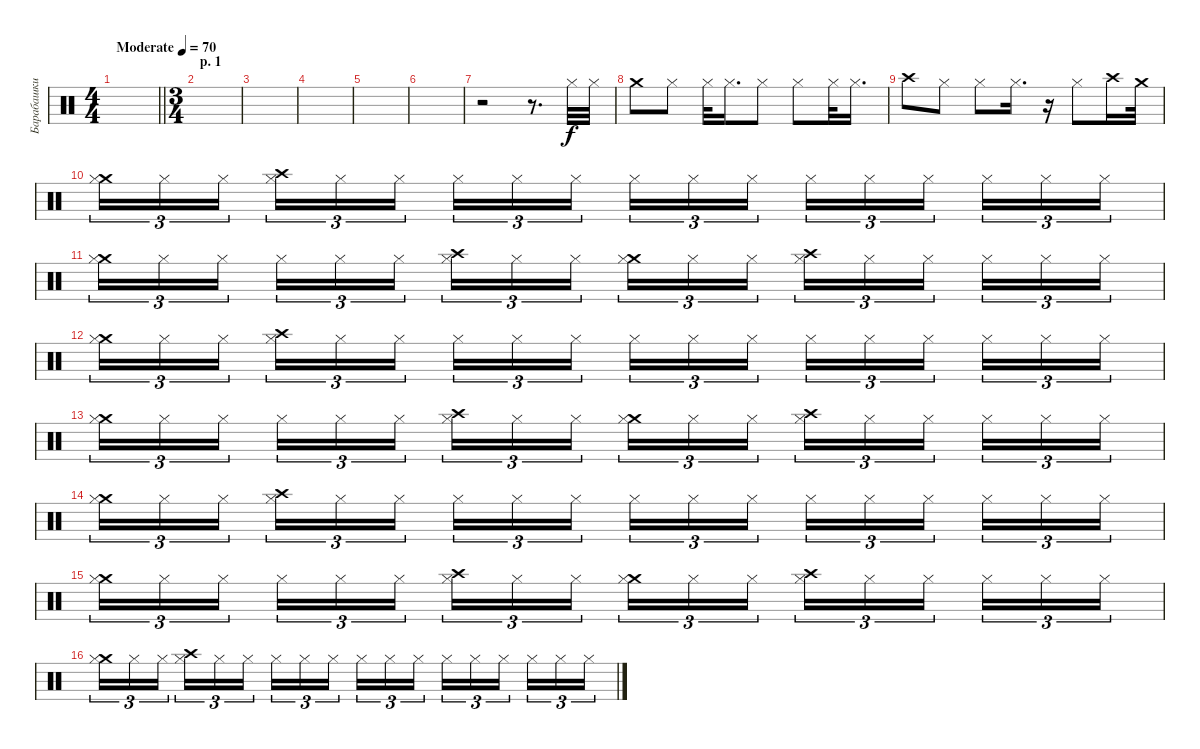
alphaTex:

\track ("Барабашки High" "Барабашки ") {instrument percussion}
\staff {score}
\articulation defaults
\ts (4 4)
\tempo (70 "Moderate")
\clef neutral
\barLineRight lightlight
\ks c
|
\ts (3 4)
\section ("" "p. 1")
|
|
|
|
|
r.2 r.8{d} "Hi-Hat (closed)".32 "Hi-Hat (closed)".32 |
"Crash medium (hit)".8 "Hi-Hat (closed)".8 "Hi-Hat (closed)".32 "Hi-Hat (closed)".16{d} "Hi-Hat (closed)".8 "Hi-Hat (closed)".8 "Hi-Hat (closed)".32 "Hi-Hat (closed)".16{d} |
"Crash high (hit)".8 "Hi-Hat (closed)".8 "Hi-Hat (closed)".8 "Hi-Hat (closed)".16{d} r.16 "Hi-Hat (closed)".8 "Crash high (hit)".16 "Crash medium (hit)".32 |
("Crash medium (hit)" "Hi-Hat (closed)").16{tu (3 2)} "Hi-Hat (closed)".16{tu (3 2)} "Hi-Hat (closed)".16{tu (3 2) beam splitsecondary} ("Crash high (hit)" "Hi-Hat (closed)").16{tu (3 2)} "Hi-Hat (closed)".16{tu (3 2)} "Hi-Hat (closed)".16{tu (3 2)} "Hi-Hat (closed)".16{tu (3 2)} "Hi-Hat (closed)".16{tu (3 2)} "Hi-Hat (closed)".16{tu (3 2) beam splitsecondary} "Hi-Hat (closed)".16{tu (3 2)} "Hi-Hat (closed)".16{tu (3 2)} "Hi-Hat (closed)".16{tu (3 2)} "Hi-Hat (closed)".16{tu (3 2)} "Hi-Hat (closed)".16{tu (3 2)} "Hi-Hat (closed)".16{tu (3 2) beam splitsecondary} "Hi-Hat (closed)".16{tu (3 2)} "Hi-Hat (closed)".16{tu (3 2)} "Hi-Hat (closed)".16{tu (3 2)} |
("Crash medium (hit)" "Hi-Hat (closed)").16{tu (3 2)} "Hi-Hat (closed)".16{tu (3 2)} "Hi-Hat (closed)".16{tu (3 2) beam splitsecondary} "Hi-Hat (closed)".16{tu (3 2)} "Hi-Hat (closed)".16{tu (3 2)} "Hi-Hat (closed)".16{tu (3 2)} ("Crash high (hit)" "Hi-Hat (closed)").16{tu (3 2)} "Hi-Hat (closed)".16{tu (3 2)} "Hi-Hat (closed)".16{tu (3 2) beam splitsecondary} ("Crash medium (hit)" "Hi-Hat (closed)").16{tu (3 2)} "Hi-Hat (closed)".16{tu (3 2)} "Hi-Hat (closed)".16{tu (3 2)} ("Crash high (hit)" "Hi-Hat (closed)").16{tu (3 2)} "Hi-Hat (closed)".16{tu (3 2)} "Hi-Hat (closed)".16{tu (3 2) beam splitsecondary} "Hi-Hat (closed)".16{tu (3 2)} "Hi-Hat (closed)".16{tu (3 2)} "Hi-Hat (closed)".16{tu (3 2)} |
("Crash medium (hit)" "Hi-Hat (closed)").16{tu (3 2)} "Hi-Hat (closed)".16{tu (3 2)} "Hi-Hat (closed)".16{tu (3 2) beam splitsecondary} ("Crash high (hit)" "Hi-Hat (closed)").16{tu (3 2)} "Hi-Hat (closed)".16{tu (3 2)} "Hi-Hat (closed)".16{tu (3 2)} "Hi-Hat (closed)".16{tu (3 2)} "Hi-Hat (closed)".16{tu (3 2)} "Hi-Hat (closed)".16{tu (3 2) beam splitsecondary} "Hi-Hat (closed)".16{tu (3 2)} "Hi-Hat (closed)".16{tu (3 2)} "Hi-Hat (closed)".16{tu (3 2)} "Hi-Hat (closed)".16{tu (3 2)} "Hi-Hat (closed)".16{tu (3 2)} "Hi-Hat (closed)".16{tu (3 2) beam splitsecondary} "Hi-Hat (closed)".16{tu (3 2)} "Hi-Hat (closed)".16{tu (3 2)} "Hi-Hat (closed)".16{tu (3 2)} |
("Crash medium (hit)" "Hi-Hat (closed)").16{tu (3 2)} "Hi-Hat (closed)".16{tu (3 2)} "Hi-Hat (closed)".16{tu (3 2) beam splitsecondary} "Hi-Hat (closed)".16{tu (3 2)} "Hi-Hat (closed)".16{tu (3 2)} "Hi-Hat (closed)".16{tu (3 2)} ("Crash high (hit)" "Hi-Hat (closed)").16{tu (3 2)} "Hi-Hat (closed)".16{tu (3 2)} "Hi-Hat (closed)".16{tu (3 2) beam splitsecondary} ("Crash medium (hit)" "Hi-Hat (closed)").16{tu (3 2)} "Hi-Hat (closed)".16{tu (3 2)} "Hi-Hat (closed)".16{tu (3 2)} ("Crash high (hit)" "Hi-Hat (closed)").16{tu (3 2)} "Hi-Hat (closed)".16{tu (3 2)} "Hi-Hat (closed)".16{tu (3 2) beam splitsecondary} "Hi-Hat (closed)".16{tu (3 2)} "Hi-Hat (closed)".16{tu (3 2)} "Hi-Hat (closed)".16{tu (3 2)} |
("Crash medium (hit)" "Hi-Hat (closed)").16{tu (3 2)} "Hi-Hat (closed)".16{tu (3 2)} "Hi-Hat (closed)".16{tu (3 2) beam splitsecondary} ("Crash high (hit)" "Hi-Hat (closed)").16{tu (3 2)} "Hi-Hat (closed)".16{tu (3 2)} "Hi-Hat (closed)".16{tu (3 2)} "Hi-Hat (closed)".16{tu (3 2)} "Hi-Hat (closed)".16{tu (3 2)} "Hi-Hat (closed)".16{tu (3 2) beam splitsecondary} "Hi-Hat (closed)".16{tu (3 2)} "Hi-Hat (closed)".16{tu (3 2)} "Hi-Hat (closed)".16{tu (3 2)} "Hi-Hat (closed)".16{tu (3 2)} "Hi-Hat (closed)".16{tu (3 2)} "Hi-Hat (closed)".16{tu (3 2) beam splitsecondary} "Hi-Hat (closed)".16{tu (3 2)} "Hi-Hat (closed)".16{tu (3 2)} "Hi-Hat (closed)".16{tu (3 2)} |
("Crash medium (hit)" "Hi-Hat (closed)").16{tu (3 2)} "Hi-Hat (closed)".16{tu (3 2)} "Hi-Hat (closed)".16{tu (3 2) beam splitsecondary} "Hi-Hat (closed)".16{tu (3 2)} "Hi-Hat (closed)".16{tu (3 2)} "Hi-Hat (closed)".16{tu (3 2)} ("Crash high (hit)" "Hi-Hat (closed)").16{tu (3 2)} "Hi-Hat (closed)".16{tu (3 2)} "Hi-Hat (closed)".16{tu (3 2) beam splitsecondary} ("Crash medium (hit)" "Hi-Hat (closed)").16{tu (3 2)} "Hi-Hat (closed)".16{tu (3 2)} "Hi-Hat (closed)".16{tu (3 2)} ("Crash high (hit)" "Hi-Hat (closed)").16{tu (3 2)} "Hi-Hat (closed)".16{tu (3 2)} "Hi-Hat (closed)".16{tu (3 2) beam splitsecondary} "Hi-Hat (closed)".16{tu (3 2)} "Hi-Hat (closed)".16{tu (3 2)} "Hi-Hat (closed)".16{tu (3 2)} |
("Crash medium (hit)" "Hi-Hat (closed)").16{tu (3 2)} "Hi-Hat (closed)".16{tu (3 2)} "Hi-Hat (closed)".16{tu (3 2) beam splitsecondary} ("Crash high (hit)" "Hi-Hat (closed)").16{tu (3 2)} "Hi-Hat (closed)".16{tu (3 2)} "Hi-Hat (closed)".16{tu (3 2)} "Hi-Hat (closed)".16{tu (3 2)} "Hi-Hat (closed)".16{tu (3 2)} "Hi-Hat (closed)".16{tu (3 2) beam splitsecondary} "Hi-Hat (closed)".16{tu (3 2)} "Hi-Hat (closed)".16{tu (3 2)} "Hi-Hat (closed)".16{tu (3 2)} "Hi-Hat (closed)".16{tu (3 2)} "Hi-Hat (closed)".16{tu (3 2)} "Hi-Hat (closed)".16{tu (3 2) beam splitsecondary} "Hi-Hat (closed)".16{tu (3 2)} "Hi-Hat (closed)".16{tu (3 2)} "Hi-Hat (closed)".16{tu (3 2)}
